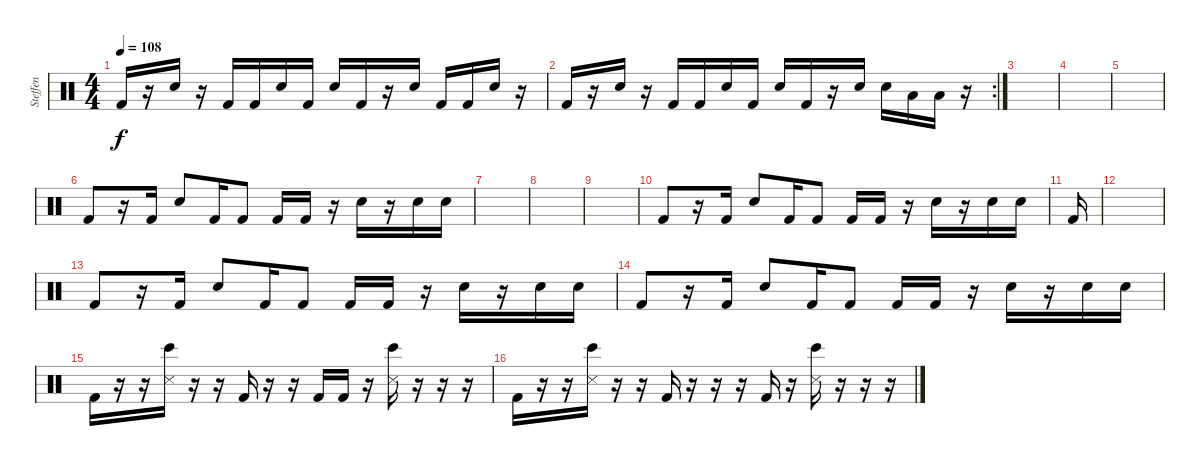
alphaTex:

\track ("Steffen" "Steffen") {instrument percussion}
\staff {score}
\articulation defaults
\ts (4 4)
\tempo 108
\clef neutral
\ks c "Kick (hit) 2".16{dy f}
r.16 "Snare (hit) 2".16 r.16 "Kick (hit) 2".16 "Kick (hit) 2".16 "Snare (hit) 2".16 "Kick (hit) 2".16 "Snare (hit) 2".16 "Kick (hit) 2".16 r.16 "Snare (hit) 2".16 "Kick (hit) 2".16 "Kick (hit) 2".16 "Snare (hit) 2".16 r.16 |
\rc 2 "Kick (hit) 2".16
r.16 "Snare (hit) 2".16 r.16 "Kick (hit) 2".16 "Kick (hit) 2".16 "Snare (hit) 2".16 "Kick (hit) 2".16 "Snare (hit) 2".16 "Kick (hit) 2".16 r.16 "Snare (hit) 2".16 "Snare (hit) 2".16 "Low Tom (hit)".16 "Low Tom (hit)".16 r.16 |
|
|
|
"Kick (hit) 2".8 r.16 "Kick (hit) 2".16 "Snare (hit) 2".8 "Kick (hit) 2".16 "Kick (hit) 2".8 "Kick (hit) 2".16 "Kick (hit) 2".16 r.16 "Snare (hit) 2".16 r.16 "Snare (hit) 2".16 "Snare (hit) 2".16 |
|
|
|
"Kick (hit) 2".8 r.16 "Kick (hit) 2".16 "Snare (hit) 2".8 "Kick (hit) 2".16 "Kick (hit) 2".8 "Kick (hit) 2".16 "Kick (hit) 2".16 r.16 "Snare (hit) 2".16 r.16 "Snare (hit) 2".16 "Snare (hit) 2".16 |
"Kick (hit) 2".16 |
|
"Kick (hit) 2".8 r.16 "Kick (hit) 2".16 "Snare (hit) 2".8 "Kick (hit) 2".16 "Kick (hit) 2".8 "Kick (hit) 2".16 "Kick (hit) 2".16 r.16 "Snare (hit) 2".16 r.16 "Snare (hit) 2".16 "Snare (hit) 2".16 |
"Kick (hit) 2".8 r.16 "Kick (hit) 2".16 "Snare (hit) 2".8 "Kick (hit) 2".16 "Kick (hit) 2".8 "Kick (hit) 2".16 "Kick (hit) 2".16 r.16 "Snare (hit) 2".16 r.16 "Snare (hit) 2".16 "Snare (hit) 2".16 |
"Kick (hit) 2".16 r.16 r.16 ("Bongo High (hit)" "Snare (side stick) 3").16 r.16 r.16 "Kick (hit) 2".16 r.16 r.16 "Kick (hit) 2".16 "Kick (hit) 2".16 r.16 ("Bongo High (hit)" "Snare (side stick) 3").16 r.16 r.16 r.16 |
"Kick (hit) 2".16 r.16 r.16 ("Bongo High (hit)" "Snare (side stick) 3").16 r.16 r.16 "Kick (hit) 2".16 r.16 r.16 r.16 "Kick (hit) 2".16 r.16 ("Bongo High (hit)" "Snare (side stick) 3").16 r.16 r.16 r.16
